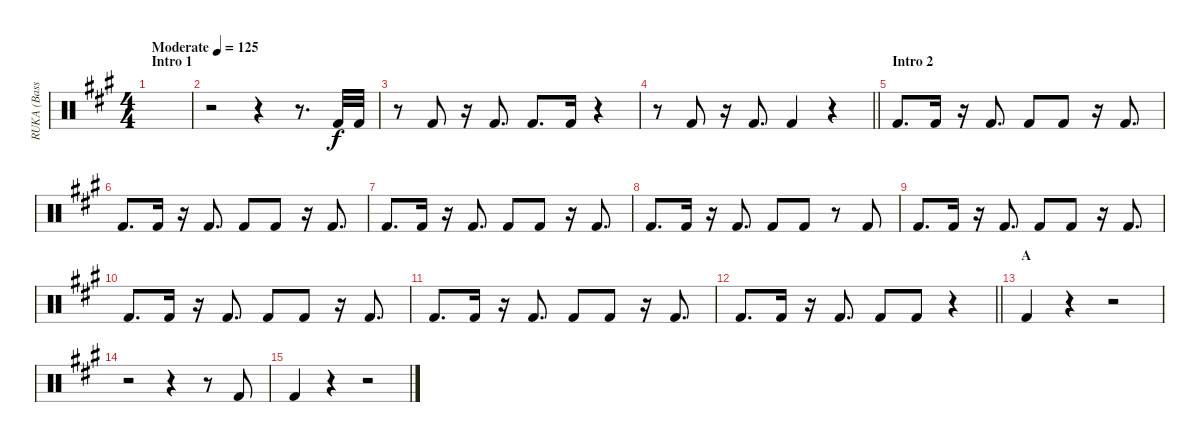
\track ("RUKA (Bass Drum)" "RUKA (Bass") {instrument percussion}
\staff {score}
\articulation defaults
\ts (4 4)
\section ("" "Intro 1")
\tempo (125 "Moderate")
\clef neutral
\ks a
|
r.2 r.4 r.8{d} "Kick (hit) 2".32 "Kick (hit) 2".32 |
r.8 "Kick (hit) 2".8 r.16 "Kick (hit) 2".8{d} "Kick (hit) 2".8{d} "Kick (hit) 2".16 r.4 |
\barLineRight lightlight
r.8 "Kick (hit) 2".8 r.16 "Kick (hit) 2".8{d} "Kick (hit) 2".4 r.4 |
\section ("" "Intro 2")
"Kick (hit) 2".8{d} "Kick (hit) 2".16 r.16 "Kick (hit) 2".8{d} "Kick (hit) 2".8 "Kick (hit) 2".8 r.16 "Kick (hit) 2".8{d} |
"Kick (hit) 2".8{d} "Kick (hit) 2".16 r.16 "Kick (hit) 2".8{d} "Kick (hit) 2".8 "Kick (hit) 2".8 r.16 "Kick (hit) 2".8{d} |
"Kick (hit) 2".8{d} "Kick (hit) 2".16 r.16 "Kick (hit) 2".8{d} "Kick (hit) 2".8 "Kick (hit) 2".8 r.16 "Kick (hit) 2".8{d} |
"Kick (hit) 2".8{d} "Kick (hit) 2".16 r.16 "Kick (hit) 2".8{d} "Kick (hit) 2".8 "Kick (hit) 2".8 r.8 "Kick (hit) 2".8 |
"Kick (hit) 2".8{d} "Kick (hit) 2".16 r.16 "Kick (hit) 2".8{d} "Kick (hit) 2".8 "Kick (hit) 2".8 r.16 "Kick (hit) 2".8{d} |
"Kick (hit) 2".8{d} "Kick (hit) 2".16 r.16 "Kick (hit) 2".8{d} "Kick (hit) 2".8 "Kick (hit) 2".8 r.16 "Kick (hit) 2".8{d} |
"Kick (hit) 2".8{d} "Kick (hit) 2".16 r.16 "Kick (hit) 2".8{d} "Kick (hit) 2".8 "Kick (hit) 2".8 r.16 "Kick (hit) 2".8{d} |
\barLineRight lightlight "Kick (hit) 2".8{d} "Kick (hit) 2".16
r.16 "Kick (hit) 2".8{d} "Kick (hit) 2".8 "Kick (hit) 2".8 r.4 |
\section ("" "A")
"Kick (hit) 2".4 r.4 r.2 |
r.2 r.4 r.8 "Kick (hit) 2".8 |
"Kick (hit) 2".4 r.4 r.2
